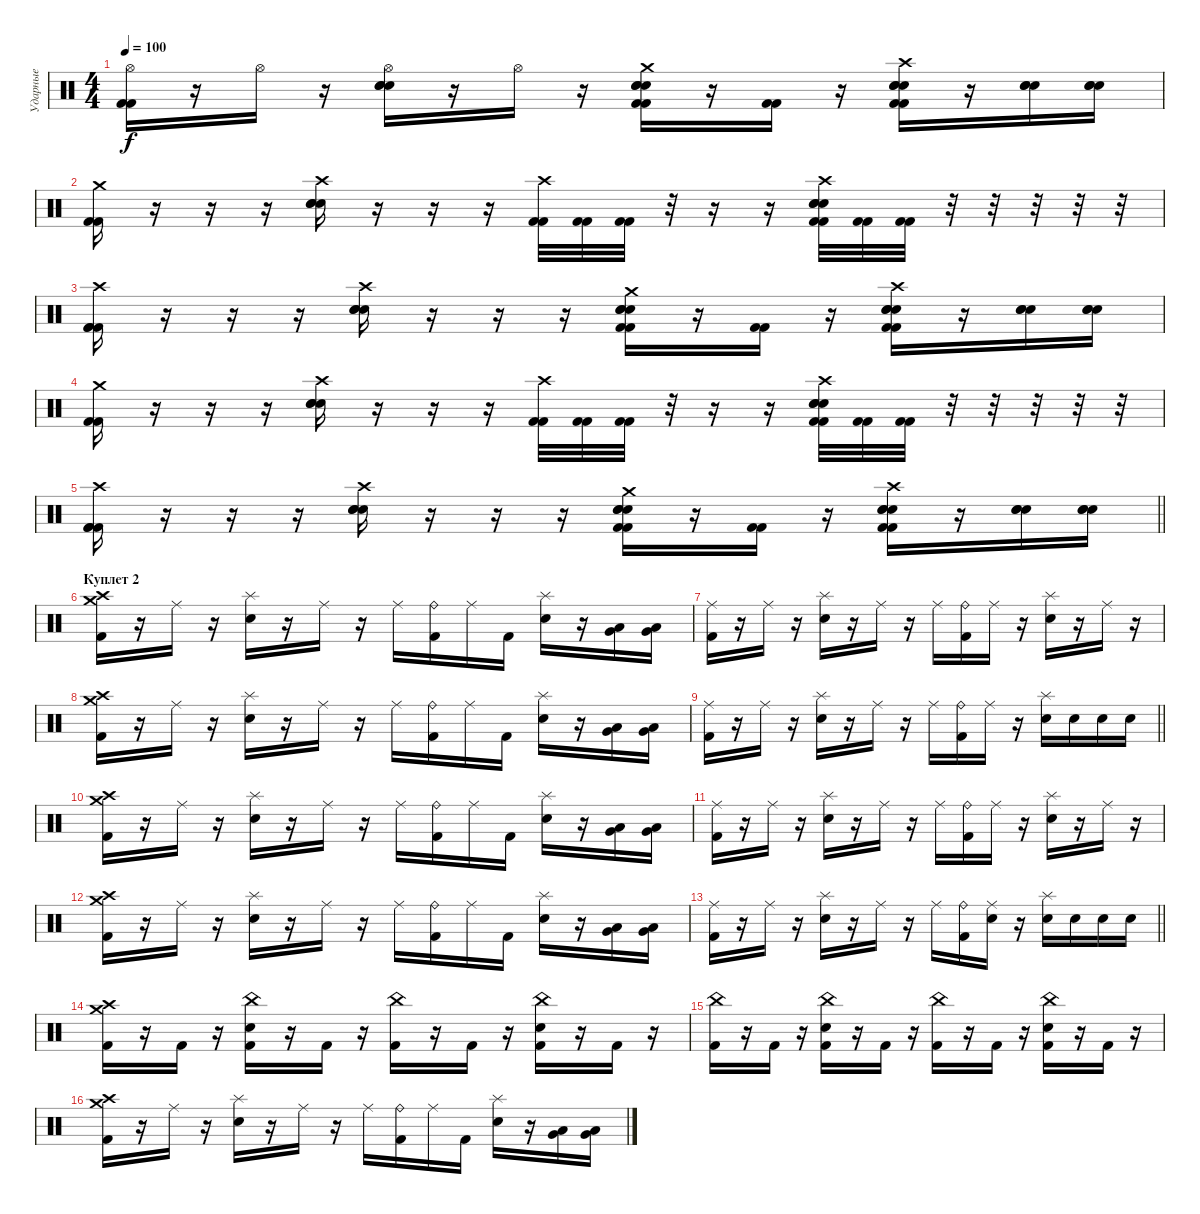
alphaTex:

\track ("Ударные" "Ударные") {instrument percussion}
\staff {score}
\articulation defaults
\ts (4 4)
\tempo 100
\clef neutral
\ks c
("Hi-Hat (open)" "Kick (hit) 2" "Kick (hit) 2").16{dy f} r.16 "Hi-Hat (open)".16 r.16 ("Hi-Hat (open)" "Electric Snare (hit)" "Electric Snare (hit)" "Electric Snare (hit)").16 r.16 "Hi-Hat (open)".16 r.16 ("Crash medium (hit)" "Electric Snare (hit)" "Electric Snare (hit)" "Electric Snare (hit)" "Kick (hit) 2" "Kick (hit) 2").16 r.16 ("Kick (hit) 2" "Kick (hit) 2").16 r.16 ("Crash high (hit)" "Electric Snare (hit)" "Electric Snare (hit)" "Electric Snare (hit)" "Kick (hit) 2" "Kick (hit) 2").16 r.16 ("Electric Snare (hit)" "Electric Snare (hit)" "Electric Snare (hit)").16 ("Electric Snare (hit)" "Electric Snare (hit)" "Electric Snare (hit)").16 |
("Crash medium (hit)" "Kick (hit) 2" "Kick (hit) 2").16 r.16 r.16 r.16 ("Electric Snare (hit)" "Crash high (hit)" "Electric Snare (hit)" "Electric Snare (hit)").16 r.16 r.16 r.16 ("Crash high (hit)" "Kick (hit) 2" "Kick (hit) 2").32 ("Kick (hit) 2" "Kick (hit) 2").32 ("Kick (hit) 2" "Kick (hit) 2").32 r.32 r.16 r.16 ("Electric Snare (hit)" "Crash high (hit)" "Electric Snare (hit)" "Electric Snare (hit)" "Kick (hit) 2" "Kick (hit) 2").32 ("Kick (hit) 2" "Kick (hit) 2").32 ("Kick (hit) 2" "Kick (hit) 2").32 r.32 r.32 r.32 r.32 r.32 |
("Crash high (hit)" "Kick (hit) 2" "Kick (hit) 2" "Kick (hit) 2").16 r.16 r.16 r.16 ("Crash high (hit)" "Electric Snare (hit)" "Electric Snare (hit)" "Electric Snare (hit)").16 r.16 r.16 r.16 ("Crash medium (hit)" "Electric Snare (hit)" "Electric Snare (hit)" "Electric Snare (hit)" "Kick (hit) 2" "Kick (hit) 2").16 r.16 ("Kick (hit) 2" "Kick (hit) 2").16 r.16 ("Crash high (hit)" "Electric Snare (hit)" "Electric Snare (hit)" "Electric Snare (hit)" "Kick (hit) 2" "Kick (hit) 2").16 r.16 ("Electric Snare (hit)" "Electric Snare (hit)" "Electric Snare (hit)").16 ("Electric Snare (hit)" "Electric Snare (hit)" "Electric Snare (hit)").16 |
("Crash medium (hit)" "Kick (hit) 2" "Kick (hit) 2").16 r.16 r.16 r.16 ("Electric Snare (hit)" "Crash high (hit)" "Electric Snare (hit)" "Electric Snare (hit)").16 r.16 r.16 r.16 ("Crash high (hit)" "Kick (hit) 2" "Kick (hit) 2").32 ("Kick (hit) 2" "Kick (hit) 2").32 ("Kick (hit) 2" "Kick (hit) 2").32 r.32 r.16 r.16 ("Electric Snare (hit)" "Crash high (hit)" "Electric Snare (hit)" "Electric Snare (hit)" "Kick (hit) 2" "Kick (hit) 2").32 ("Kick (hit) 2" "Kick (hit) 2").32 ("Kick (hit) 2" "Kick (hit) 2").32 r.32 r.32 r.32 r.32 r.32 |
\barLineRight lightlight
("Crash high (hit)" "Kick (hit) 2" "Kick (hit) 2" "Kick (hit) 2").16 r.16 r.16 r.16 ("Crash high (hit)" "Electric Snare (hit)" "Electric Snare (hit)" "Electric Snare (hit)").16 r.16 r.16 r.16 ("Crash medium (hit)" "Electric Snare (hit)" "Electric Snare (hit)" "Electric Snare (hit)" "Kick (hit) 2" "Kick (hit) 2").16 r.16 ("Kick (hit) 2" "Kick (hit) 2").16 r.16 ("Crash high (hit)" "Electric Snare (hit)" "Electric Snare (hit)" "Electric Snare (hit)" "Kick (hit) 2" "Kick (hit) 2").16 r.16 ("Electric Snare (hit)" "Electric Snare (hit)" "Electric Snare (hit)").16 ("Electric Snare (hit)" "Electric Snare (hit)" "Electric Snare (hit)").16 |
\section ("" "Куплет 2")
("Crash medium (hit)" "Crash high (hit)" "Kick (hit) 2").16 r.16 "Ride (middle)".16 r.16 ("Splash (hit)" "Electric Snare (hit)").16 r.16 "Ride (middle)".16 r.16 "Ride (middle)".16 ("Ride (bell)" "Kick (hit) 2").16 "Ride (middle)".16 "Kick (hit) 2".16 ("Splash (hit)" "Electric Snare (hit)").16 r.16 ("Very Low Tom (hit)" "Low Floor Tom (hit)").16 ("Very Low Tom (hit)" "Low Floor Tom (hit)").16 |
("Ride (middle)" "Kick (hit) 2").16 r.16 "Ride (middle)".16 r.16 ("Splash (hit)" "Electric Snare (hit)").16 r.16 "Ride (middle)".16 r.16 "Ride (middle)".16 ("Ride (bell)" "Kick (hit) 2").16 "Ride (middle)".16 r.16 ("Splash (hit)" "Electric Snare (hit)").16 r.16 "Ride (middle)".16 r.16 |
("Crash medium (hit)" "Crash high (hit)" "Kick (hit) 2").16 r.16 "Ride (middle)".16 r.16 ("Splash (hit)" "Electric Snare (hit)").16 r.16 "Ride (middle)".16 r.16 "Ride (middle)".16 ("Ride (bell)" "Kick (hit) 2").16 "Ride (middle)".16 "Kick (hit) 2".16 ("Splash (hit)" "Electric Snare (hit)").16 r.16 ("Very Low Tom (hit)" "Low Floor Tom (hit)").16 ("Very Low Tom (hit)" "Low Floor Tom (hit)").16 |
\barLineRight lightlight
("Ride (middle)" "Kick (hit) 2").16 r.16 "Ride (middle)".16 r.16 ("Splash (hit)" "Electric Snare (hit)").16 r.16 "Ride (middle)".16 r.16 "Ride (middle)".16 ("Ride (bell)" "Kick (hit) 2").16 "Ride (middle)".16 r.16 ("Splash (hit)" "Electric Snare (hit)").16 "Electric Snare (hit)".16 "Electric Snare (hit)".16 "Electric Snare (hit)".16 |
("Crash medium (hit)" "Crash high (hit)" "Kick (hit) 2").16 r.16 "Ride (middle)".16 r.16 ("Splash (hit)" "Electric Snare (hit)").16 r.16 "Ride (middle)".16 r.16 "Ride (middle)".16 ("Ride (bell)" "Kick (hit) 2").16 "Ride (middle)".16 "Kick (hit) 2".16 ("Splash (hit)" "Electric Snare (hit)").16 r.16 ("Very Low Tom (hit)" "Low Floor Tom (hit)").16 ("Very Low Tom (hit)" "Low Floor Tom (hit)").16 |
("Ride (middle)" "Kick (hit) 2").16 r.16 "Ride (middle)".16 r.16 ("Splash (hit)" "Electric Snare (hit)").16 r.16 "Ride (middle)".16 r.16 "Ride (middle)".16 ("Ride (bell)" "Kick (hit) 2").16 "Ride (middle)".16 r.16 ("Splash (hit)" "Electric Snare (hit)").16 r.16 "Ride (middle)".16 r.16 |
("Crash medium (hit)" "Crash high (hit)" "Kick (hit) 2").16 r.16 "Ride (middle)".16 r.16 ("Splash (hit)" "Electric Snare (hit)").16 r.16 "Ride (middle)".16 r.16 "Ride (middle)".16 ("Ride (bell)" "Kick (hit) 2").16 "Ride (middle)".16 "Kick (hit) 2".16 ("Splash (hit)" "Electric Snare (hit)").16 r.16 ("Very Low Tom (hit)" "Low Floor Tom (hit)").16 ("Very Low Tom (hit)" "Low Floor Tom (hit)").16 |
\barLineRight lightlight
("Ride (middle)" "Kick (hit) 2").16 r.16 "Ride (middle)".16 r.16 ("Splash (hit)" "Electric Snare (hit)").16 r.16 "Ride (middle)".16 r.16 "Ride (middle)".16 ("Ride (bell)" "Kick (hit) 2").16 ("Ride (middle)" "Electric Snare (hit)").16 r.16 ("Splash (hit)" "Electric Snare (hit)").16 "Electric Snare (hit)".16 "Electric Snare (hit)".16 "Electric Snare (hit)".16 |
("Crash medium (hit)" "Crash high (hit)" "Kick (hit) 2").16 r.16 "Kick (hit) 2".16 r.16 ("China (hit)" "Electric Snare (hit)" "Kick (hit) 2").16 r.16 "Kick (hit) 2".16 r.16 ("China (hit)" "Kick (hit) 2").16 r.16 "Kick (hit) 2".16 r.16 ("China (hit)" "Electric Snare (hit)" "Kick (hit) 2").16 r.16 "Kick (hit) 2".16 r.16 |
("China (hit)" "Kick (hit) 2").16 r.16 "Kick (hit) 2".16 r.16 ("China (hit)" "Electric Snare (hit)" "Kick (hit) 2").16 r.16 "Kick (hit) 2".16 r.16 ("China (hit)" "Kick (hit) 2").16 r.16 "Kick (hit) 2".16 r.16 ("China (hit)" "Electric Snare (hit)" "Kick (hit) 2").16 r.16 "Kick (hit) 2".16 r.16 |
("Crash medium (hit)" "Crash high (hit)" "Kick (hit) 2").16 r.16 "Ride (middle)".16 r.16 ("Splash (hit)" "Electric Snare (hit)").16 r.16 "Ride (middle)".16 r.16 "Ride (middle)".16 ("Ride (bell)" "Kick (hit) 2").16 "Ride (middle)".16 "Kick (hit) 2".16 ("Splash (hit)" "Electric Snare (hit)").16 r.16 ("Very Low Tom (hit)" "Low Floor Tom (hit)").16 ("Very Low Tom (hit)" "Low Floor Tom (hit)").16
